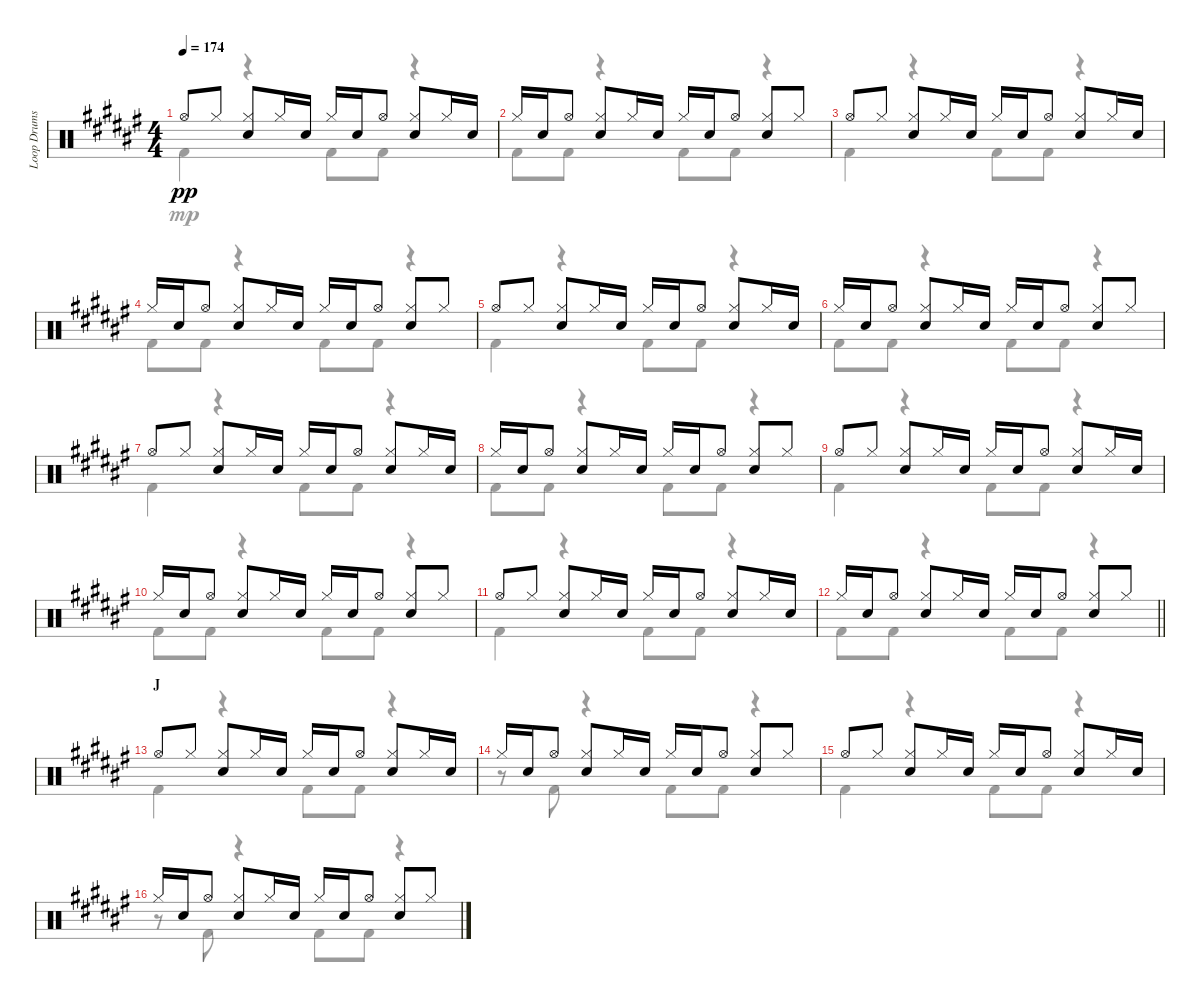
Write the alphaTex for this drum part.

\track ("Loop Drums" "Loop Drums") {instrument percussion}
\staff {score}
\articulation defaults
\voice
\ts (4 4)
\tempo 174
\clef neutral
\ks f# "Hi-Hat (open)".8{dy pp} "Hi-Hat (closed)".8
("Hi-Hat (closed)" "Electric Snare (hit)").8 "Hi-Hat (closed)".16 "Electric Snare (hit)".16 "Hi-Hat (closed)".16 "Electric Snare (hit)".16 "Hi-Hat (open)".8 ("Hi-Hat (closed)" "Electric Snare (hit)").8 "Hi-Hat (closed)".16 "Electric Snare (hit)".16 |
"Hi-Hat (closed)".16 "Electric Snare (hit)".16 "Hi-Hat (open)".8 ("Hi-Hat (closed)" "Electric Snare (hit)").8 "Hi-Hat (closed)".16 "Electric Snare (hit)".16 "Hi-Hat (closed)".16 "Electric Snare (hit)".16 "Hi-Hat (open)".8 ("Hi-Hat (closed)" "Electric Snare (hit)").8 "Hi-Hat (closed)".8 |
"Hi-Hat (open)".8 "Hi-Hat (closed)".8 ("Hi-Hat (closed)" "Electric Snare (hit)").8 "Hi-Hat (closed)".16 "Electric Snare (hit)".16 "Hi-Hat (closed)".16 "Electric Snare (hit)".16 "Hi-Hat (open)".8 ("Hi-Hat (closed)" "Electric Snare (hit)").8 "Hi-Hat (closed)".16 "Electric Snare (hit)".16 |
"Hi-Hat (closed)".16 "Electric Snare (hit)".16 "Hi-Hat (open)".8 ("Hi-Hat (closed)" "Electric Snare (hit)").8 "Hi-Hat (closed)".16 "Electric Snare (hit)".16 "Hi-Hat (closed)".16 "Electric Snare (hit)".16 "Hi-Hat (open)".8 ("Hi-Hat (closed)" "Electric Snare (hit)").8 "Hi-Hat (closed)".8 |
"Hi-Hat (open)".8 "Hi-Hat (closed)".8 ("Hi-Hat (closed)" "Electric Snare (hit)").8 "Hi-Hat (closed)".16 "Electric Snare (hit)".16 "Hi-Hat (closed)".16 "Electric Snare (hit)".16 "Hi-Hat (open)".8 ("Hi-Hat (closed)" "Electric Snare (hit)").8 "Hi-Hat (closed)".16 "Electric Snare (hit)".16 |
"Hi-Hat (closed)".16 "Electric Snare (hit)".16 "Hi-Hat (open)".8 ("Hi-Hat (closed)" "Electric Snare (hit)").8 "Hi-Hat (closed)".16 "Electric Snare (hit)".16 "Hi-Hat (closed)".16 "Electric Snare (hit)".16 "Hi-Hat (open)".8 ("Hi-Hat (closed)" "Electric Snare (hit)").8 "Hi-Hat (closed)".8 |
"Hi-Hat (open)".8 "Hi-Hat (closed)".8 ("Hi-Hat (closed)" "Electric Snare (hit)").8 "Hi-Hat (closed)".16 "Electric Snare (hit)".16 "Hi-Hat (closed)".16 "Electric Snare (hit)".16 "Hi-Hat (open)".8 ("Hi-Hat (closed)" "Electric Snare (hit)").8 "Hi-Hat (closed)".16 "Electric Snare (hit)".16 |
"Hi-Hat (closed)".16 "Electric Snare (hit)".16 "Hi-Hat (open)".8 ("Hi-Hat (closed)" "Electric Snare (hit)").8 "Hi-Hat (closed)".16 "Electric Snare (hit)".16 "Hi-Hat (closed)".16 "Electric Snare (hit)".16 "Hi-Hat (open)".8 ("Hi-Hat (closed)" "Electric Snare (hit)").8 "Hi-Hat (closed)".8 |
"Hi-Hat (open)".8 "Hi-Hat (closed)".8 ("Hi-Hat (closed)" "Electric Snare (hit)").8 "Hi-Hat (closed)".16 "Electric Snare (hit)".16 "Hi-Hat (closed)".16 "Electric Snare (hit)".16 "Hi-Hat (open)".8 ("Hi-Hat (closed)" "Electric Snare (hit)").8 "Hi-Hat (closed)".16 "Electric Snare (hit)".16 |
"Hi-Hat (closed)".16 "Electric Snare (hit)".16 "Hi-Hat (open)".8 ("Hi-Hat (closed)" "Electric Snare (hit)").8 "Hi-Hat (closed)".16 "Electric Snare (hit)".16 "Hi-Hat (closed)".16 "Electric Snare (hit)".16 "Hi-Hat (open)".8 ("Hi-Hat (closed)" "Electric Snare (hit)").8 "Hi-Hat (closed)".8 |
"Hi-Hat (open)".8 "Hi-Hat (closed)".8 ("Hi-Hat (closed)" "Electric Snare (hit)").8 "Hi-Hat (closed)".16 "Electric Snare (hit)".16 "Hi-Hat (closed)".16 "Electric Snare (hit)".16 "Hi-Hat (open)".8 ("Hi-Hat (closed)" "Electric Snare (hit)").8 "Hi-Hat (closed)".16 "Electric Snare (hit)".16 |
\barLineRight lightlight "Hi-Hat (closed)".16 "Electric Snare (hit)".16 "Hi-Hat (open)".8
("Hi-Hat (closed)" "Electric Snare (hit)").8 "Hi-Hat (closed)".16 "Electric Snare (hit)".16 "Hi-Hat (closed)".16 "Electric Snare (hit)".16 "Hi-Hat (open)".8 ("Hi-Hat (closed)" "Electric Snare (hit)").8 "Hi-Hat (closed)".8 |
\section ("" "J")
"Hi-Hat (open)".8 "Hi-Hat (closed)".8 ("Hi-Hat (closed)" "Electric Snare (hit)").8 "Hi-Hat (closed)".16 "Electric Snare (hit)".16 "Hi-Hat (closed)".16 "Electric Snare (hit)".16 "Hi-Hat (open)".8 ("Hi-Hat (closed)" "Electric Snare (hit)").8 "Hi-Hat (closed)".16 "Electric Snare (hit)".16 |
"Hi-Hat (closed)".16 "Electric Snare (hit)".16 "Hi-Hat (open)".8 ("Hi-Hat (closed)" "Electric Snare (hit)").8 "Hi-Hat (closed)".16 "Electric Snare (hit)".16 "Hi-Hat (closed)".16 "Electric Snare (hit)".16 "Hi-Hat (open)".8 ("Hi-Hat (closed)" "Electric Snare (hit)").8 "Hi-Hat (closed)".8 |
"Hi-Hat (open)".8 "Hi-Hat (closed)".8 ("Hi-Hat (closed)" "Electric Snare (hit)").8 "Hi-Hat (closed)".16 "Electric Snare (hit)".16 "Hi-Hat (closed)".16 "Electric Snare (hit)".16 "Hi-Hat (open)".8 ("Hi-Hat (closed)" "Electric Snare (hit)").8 "Hi-Hat (closed)".16 "Electric Snare (hit)".16 |
"Hi-Hat (closed)".16 "Electric Snare (hit)".16 "Hi-Hat (open)".8 ("Hi-Hat (closed)" "Electric Snare (hit)").8 "Hi-Hat (closed)".16 "Electric Snare (hit)".16 "Hi-Hat (closed)".16 "Electric Snare (hit)".16 "Hi-Hat (open)".8 ("Hi-Hat (closed)" "Electric Snare (hit)").8 "Hi-Hat (closed)".8
\voice
\clef neutral
\ottava regular
\simile none
\ks f# "Kick (hit) 2".4{dy mp}
r.4 "Kick (hit) 2".8 "Kick (hit) 2".8 r.4 |
"Kick (hit) 2".8 "Kick (hit) 2".8 r.4 "Kick (hit) 2".8 "Kick (hit) 2".8 r.4 |
"Kick (hit) 2".4 r.4 "Kick (hit) 2".8 "Kick (hit) 2".8 r.4 |
"Kick (hit) 2".8 "Kick (hit) 2".8 r.4 "Kick (hit) 2".8 "Kick (hit) 2".8 r.4 |
"Kick (hit) 2".4 r.4 "Kick (hit) 2".8 "Kick (hit) 2".8 r.4 |
"Kick (hit) 2".8 "Kick (hit) 2".8 r.4 "Kick (hit) 2".8 "Kick (hit) 2".8 r.4 |
"Kick (hit) 2".4 r.4 "Kick (hit) 2".8 "Kick (hit) 2".8 r.4 |
"Kick (hit) 2".8 "Kick (hit) 2".8 r.4 "Kick (hit) 2".8 "Kick (hit) 2".8 r.4 |
"Kick (hit) 2".4 r.4 "Kick (hit) 2".8 "Kick (hit) 2".8 r.4 |
"Kick (hit) 2".8 "Kick (hit) 2".8 r.4 "Kick (hit) 2".8 "Kick (hit) 2".8 r.4 |
"Kick (hit) 2".4 r.4 "Kick (hit) 2".8 "Kick (hit) 2".8 r.4 |
\barLineRight lightlight "Kick (hit) 2".8 "Kick (hit) 2".8
r.4 "Kick (hit) 2".8 "Kick (hit) 2".8 r.4 |
"Kick (hit) 2".4 r.4 "Kick (hit) 2".8 "Kick (hit) 2".8 r.4 |
r.8 "Kick (hit) 2".8 r.4 "Kick (hit) 2".8 "Kick (hit) 2".8 r.4 |
"Kick (hit) 2".4 r.4 "Kick (hit) 2".8 "Kick (hit) 2".8 r.4 |
r.8 "Kick (hit) 2".8 r.4 "Kick (hit) 2".8 "Kick (hit) 2".8 r.4
